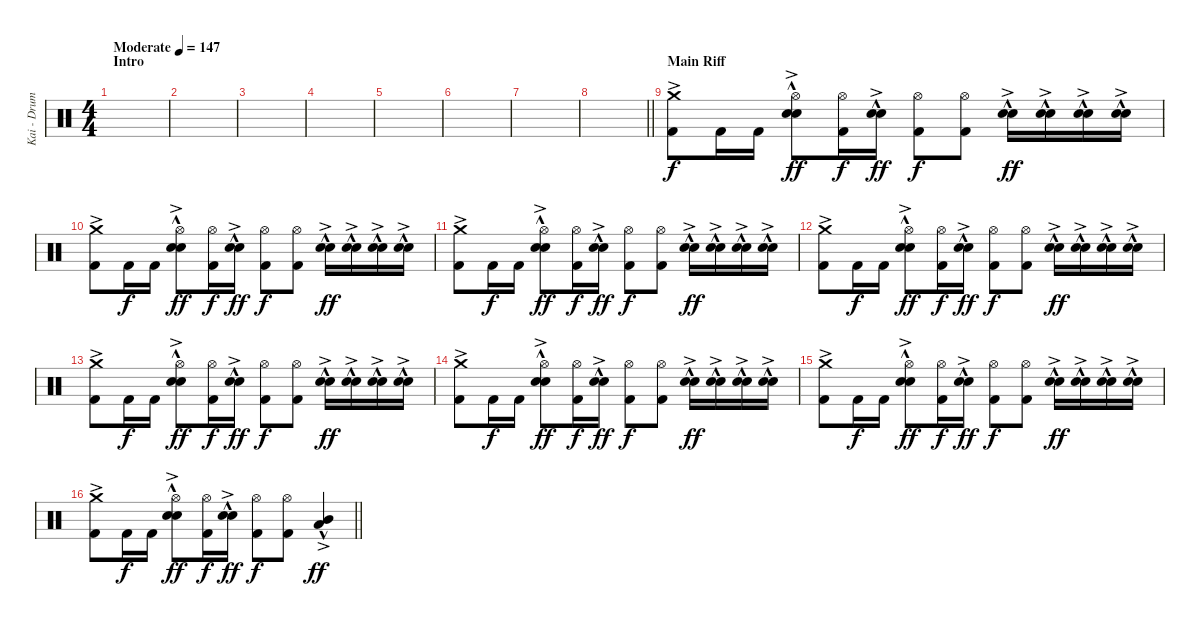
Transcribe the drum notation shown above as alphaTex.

\track ("Kai - Drums" "Kai - Drum") {instrument percussion}
\staff {score}
\articulation defaults
\ts (4 4)
\section ("" "Intro")
\tempo (147 "Moderate")
\clef neutral
\ks c
|
|
|
|
|
|
|
\barLineRight lightlight
|
\section ("" "Main Riff")
("Crash medium (hit)"{ac} "Kick (hit) 2").8 "Kick (hit) 2".16{dy f} "Kick (hit) 2".16 ("Hi-Hat (open)" "Electric Snare (hit)"{hac} "Snare (hit) 2"{ac}).8{dy ff} ("Hi-Hat (open)" "Kick (hit) 2").16{dy f} ("Electric Snare (hit)"{hac} "Snare (hit) 2"{ac}).16{dy ff} ("Hi-Hat (open)" "Kick (hit) 2").8{dy f} ("Hi-Hat (open)" "Kick (hit) 2").8 ("Electric Snare (hit)"{hac} "Snare (hit) 2"{ac}).16{dy ff} ("Electric Snare (hit)"{hac} "Snare (hit) 2"{ac}).16 ("Electric Snare (hit)"{hac} "Snare (hit) 2"{ac}).16 ("Electric Snare (hit)"{hac} "Snare (hit) 2"{ac}).16 |
("Crash medium (hit)"{ac} "Kick (hit) 2").8 "Kick (hit) 2".16{dy f} "Kick (hit) 2".16 ("Hi-Hat (open)" "Electric Snare (hit)"{hac} "Snare (hit) 2"{ac}).8{dy ff} ("Hi-Hat (open)" "Kick (hit) 2").16{dy f} ("Electric Snare (hit)"{hac} "Snare (hit) 2"{ac}).16{dy ff} ("Hi-Hat (open)" "Kick (hit) 2").8{dy f} ("Hi-Hat (open)" "Kick (hit) 2").8 ("Electric Snare (hit)"{hac} "Snare (hit) 2"{ac}).16{dy ff} ("Electric Snare (hit)"{hac} "Snare (hit) 2"{ac}).16 ("Electric Snare (hit)"{hac} "Snare (hit) 2"{ac}).16 ("Electric Snare (hit)"{hac} "Snare (hit) 2"{ac}).16 |
("Crash medium (hit)"{ac} "Kick (hit) 2").8 "Kick (hit) 2".16{dy f} "Kick (hit) 2".16 ("Hi-Hat (open)" "Electric Snare (hit)"{hac} "Snare (hit) 2"{ac}).8{dy ff} ("Hi-Hat (open)" "Kick (hit) 2").16{dy f} ("Electric Snare (hit)"{hac} "Snare (hit) 2"{ac}).16{dy ff} ("Hi-Hat (open)" "Kick (hit) 2").8{dy f} ("Hi-Hat (open)" "Kick (hit) 2").8 ("Electric Snare (hit)"{hac} "Snare (hit) 2"{ac}).16{dy ff} ("Electric Snare (hit)"{hac} "Snare (hit) 2"{ac}).16 ("Electric Snare (hit)"{hac} "Snare (hit) 2"{ac}).16 ("Electric Snare (hit)"{hac} "Snare (hit) 2"{ac}).16 |
("Crash medium (hit)"{ac} "Kick (hit) 2").8 "Kick (hit) 2".16{dy f} "Kick (hit) 2".16 ("Hi-Hat (open)" "Electric Snare (hit)"{hac} "Snare (hit) 2"{ac}).8{dy ff} ("Hi-Hat (open)" "Kick (hit) 2").16{dy f} ("Electric Snare (hit)"{hac} "Snare (hit) 2"{ac}).16{dy ff} ("Hi-Hat (open)" "Kick (hit) 2").8{dy f} ("Hi-Hat (open)" "Kick (hit) 2").8 ("Electric Snare (hit)"{hac} "Snare (hit) 2"{ac}).16{dy ff} ("Electric Snare (hit)"{hac} "Snare (hit) 2"{ac}).16 ("Electric Snare (hit)"{hac} "Snare (hit) 2"{ac}).16 ("Electric Snare (hit)"{hac} "Snare (hit) 2"{ac}).16 |
("Crash medium (hit)"{ac} "Kick (hit) 2").8 "Kick (hit) 2".16{dy f} "Kick (hit) 2".16 ("Hi-Hat (open)" "Electric Snare (hit)"{hac} "Snare (hit) 2"{ac}).8{dy ff} ("Hi-Hat (open)" "Kick (hit) 2").16{dy f} ("Electric Snare (hit)"{hac} "Snare (hit) 2"{ac}).16{dy ff} ("Hi-Hat (open)" "Kick (hit) 2").8{dy f} ("Hi-Hat (open)" "Kick (hit) 2").8 ("Electric Snare (hit)"{hac} "Snare (hit) 2"{ac}).16{dy ff} ("Electric Snare (hit)"{hac} "Snare (hit) 2"{ac}).16 ("Electric Snare (hit)"{hac} "Snare (hit) 2"{ac}).16 ("Electric Snare (hit)"{hac} "Snare (hit) 2"{ac}).16 |
("Crash medium (hit)"{ac} "Kick (hit) 2").8 "Kick (hit) 2".16{dy f} "Kick (hit) 2".16 ("Hi-Hat (open)" "Electric Snare (hit)"{hac} "Snare (hit) 2"{ac}).8{dy ff} ("Hi-Hat (open)" "Kick (hit) 2").16{dy f} ("Electric Snare (hit)"{hac} "Snare (hit) 2"{ac}).16{dy ff} ("Hi-Hat (open)" "Kick (hit) 2").8{dy f} ("Hi-Hat (open)" "Kick (hit) 2").8 ("Electric Snare (hit)"{hac} "Snare (hit) 2"{ac}).16{dy ff} ("Electric Snare (hit)"{hac} "Snare (hit) 2"{ac}).16 ("Electric Snare (hit)"{hac} "Snare (hit) 2"{ac}).16 ("Electric Snare (hit)"{hac} "Snare (hit) 2"{ac}).16 |
("Crash medium (hit)"{ac} "Kick (hit) 2").8 "Kick (hit) 2".16{dy f} "Kick (hit) 2".16 ("Hi-Hat (open)" "Electric Snare (hit)"{hac} "Snare (hit) 2"{ac}).8{dy ff} ("Hi-Hat (open)" "Kick (hit) 2").16{dy f} ("Electric Snare (hit)"{hac} "Snare (hit) 2"{ac}).16{dy ff} ("Hi-Hat (open)" "Kick (hit) 2").8{dy f} ("Hi-Hat (open)" "Kick (hit) 2").8 ("Electric Snare (hit)"{hac} "Snare (hit) 2"{ac}).16{dy ff} ("Electric Snare (hit)"{hac} "Snare (hit) 2"{ac}).16 ("Electric Snare (hit)"{hac} "Snare (hit) 2"{ac}).16 ("Electric Snare (hit)"{hac} "Snare (hit) 2"{ac}).16 |
\barLineRight lightlight
("Crash medium (hit)"{ac} "Kick (hit) 2").8 "Kick (hit) 2".16{dy f} "Kick (hit) 2".16 ("Hi-Hat (open)" "Electric Snare (hit)"{hac} "Snare (hit) 2"{ac}).8{dy ff} ("Hi-Hat (open)" "Kick (hit) 2").16{dy f} ("Electric Snare (hit)"{hac} "Snare (hit) 2"{ac}).16{dy ff} ("Hi-Hat (open)" "Kick (hit) 2").8{dy f} ("Hi-Hat (open)" "Kick (hit) 2").8 ("Mid Tom (hit)"{hac} "Low Tom (hit)"{ac}).4{dy ff}
